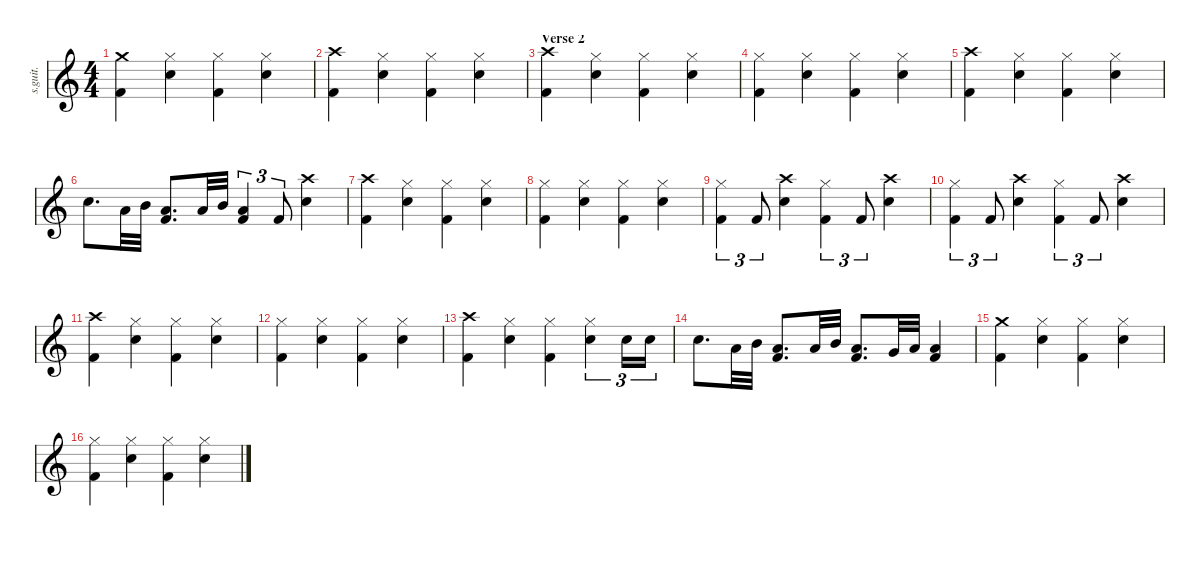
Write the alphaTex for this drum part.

\defaultSystemsLayout 4
\hideDynamics
\bracketExtendMode nobrackets
\track ("Lars Ulrich (Drums)" "s.guit.") {instrument percussion}
\staff {score}
\articulation defaults
\ts (4 4)
\tempo (118 hide)
\clef g2
\ks c
("Crash medium (hit)" "Kick (hit) 2").4{lyrics (0 "") lyrics (1 "") lyrics (2 "") lyrics (3 "") lyrics (4 "") dy f} ("Hi-Hat (closed)" "Snare (hit) 2").4{lyrics (0 "") lyrics (1 "") lyrics (2 "") lyrics (3 "") lyrics (4 "")} ("Hi-Hat (closed)" "Kick (hit) 2").4{lyrics (0 "") lyrics (1 "") lyrics (2 "") lyrics (3 "") lyrics (4 "")} ("Hi-Hat (closed)" "Snare (hit) 2").4{lyrics (0 "") lyrics (1 "") lyrics (2 "") lyrics (3 "") lyrics (4 "")} |
("Crash high (hit)" "Kick (hit) 2").4{lyrics (0 "") lyrics (1 "") lyrics (2 "") lyrics (3 "") lyrics (4 "")} ("Hi-Hat (closed)" "Snare (hit) 2").4{lyrics (0 "") lyrics (1 "") lyrics (2 "") lyrics (3 "") lyrics (4 "")} ("Hi-Hat (closed)" "Kick (hit) 2").4{lyrics (0 "") lyrics (1 "") lyrics (2 "") lyrics (3 "") lyrics (4 "")} ("Hi-Hat (closed)" "Snare (hit) 2").4{lyrics (0 "") lyrics (1 "") lyrics (2 "") lyrics (3 "") lyrics (4 "")} |
\section ("" "Verse 2")
("Crash high (hit)" "Kick (hit) 2").4{lyrics (0 "") lyrics (1 "") lyrics (2 "") lyrics (3 "") lyrics (4 "")} ("Hi-Hat (closed)" "Snare (hit) 2").4{lyrics (0 "") lyrics (1 "") lyrics (2 "") lyrics (3 "") lyrics (4 "")} ("Hi-Hat (closed)" "Kick (hit) 2").4{lyrics (0 "") lyrics (1 "") lyrics (2 "") lyrics (3 "") lyrics (4 "")} ("Hi-Hat (closed)" "Snare (hit) 2").4{lyrics (0 "") lyrics (1 "") lyrics (2 "") lyrics (3 "") lyrics (4 "")} |
("Hi-Hat (closed)" "Kick (hit) 2").4{lyrics (0 "") lyrics (1 "") lyrics (2 "") lyrics (3 "") lyrics (4 "")} ("Hi-Hat (closed)" "Snare (hit) 2").4{lyrics (0 "") lyrics (1 "") lyrics (2 "") lyrics (3 "") lyrics (4 "")} ("Hi-Hat (closed)" "Kick (hit) 2").4{lyrics (0 "") lyrics (1 "") lyrics (2 "") lyrics (3 "") lyrics (4 "")} ("Hi-Hat (closed)" "Snare (hit) 2").4{lyrics (0 "") lyrics (1 "") lyrics (2 "") lyrics (3 "") lyrics (4 "")} |
("Crash high (hit)" "Kick (hit) 2").4{lyrics (0 "") lyrics (1 "") lyrics (2 "") lyrics (3 "") lyrics (4 "")} ("Hi-Hat (closed)" "Snare (hit) 2").4{lyrics (0 "") lyrics (1 "") lyrics (2 "") lyrics (3 "") lyrics (4 "")} ("Hi-Hat (closed)" "Kick (hit) 2").4{lyrics (0 "") lyrics (1 "") lyrics (2 "") lyrics (3 "") lyrics (4 "")} ("Hi-Hat (closed)" "Snare (hit) 2").4{lyrics (0 "") lyrics (1 "") lyrics (2 "") lyrics (3 "") lyrics (4 "")} |
"Snare (hit) 2".8{d lyrics (0 "") lyrics (1 "") lyrics (2 "") lyrics (3 "") lyrics (4 "")} "Low Tom (hit)".32{lyrics (0 "") lyrics (1 "") lyrics (2 "") lyrics (3 "") lyrics (4 "")} "Mid Tom (hit)".32{lyrics (0 "") lyrics (1 "") lyrics (2 "") lyrics (3 "") lyrics (4 "")} ("Low Tom (hit)" "Kick (hit) 2").8{d lyrics (0 "") lyrics (1 "") lyrics (2 "") lyrics (3 "") lyrics (4 "")} "Low Tom (hit)".32{lyrics (0 "") lyrics (1 "") lyrics (2 "") lyrics (3 "") lyrics (4 "")} "Mid Tom (hit)".32{lyrics (0 "") lyrics (1 "") lyrics (2 "") lyrics (3 "") lyrics (4 "")} ("Low Tom (hit)" "Kick (hit) 2").4{tu (3 2) lyrics (0 "") lyrics (1 "") lyrics (2 "") lyrics (3 "") lyrics (4 "")} "Kick (hit) 2".8{tu (3 2) lyrics (0 "") lyrics (1 "") lyrics (2 "") lyrics (3 "") lyrics (4 "")} ("Crash high (hit)" "Snare (hit) 2").4{lyrics (0 "") lyrics (1 "") lyrics (2 "") lyrics (3 "") lyrics (4 "")} |
("Crash high (hit)" "Kick (hit) 2").4{lyrics (0 "") lyrics (1 "") lyrics (2 "") lyrics (3 "") lyrics (4 "")} ("Hi-Hat (closed)" "Snare (hit) 2").4{lyrics (0 "") lyrics (1 "") lyrics (2 "") lyrics (3 "") lyrics (4 "")} ("Hi-Hat (closed)" "Kick (hit) 2").4{lyrics (0 "") lyrics (1 "") lyrics (2 "") lyrics (3 "") lyrics (4 "")} ("Hi-Hat (closed)" "Snare (hit) 2").4{lyrics (0 "") lyrics (1 "") lyrics (2 "") lyrics (3 "") lyrics (4 "")} |
("Hi-Hat (closed)" "Kick (hit) 2").4{lyrics (0 "") lyrics (1 "") lyrics (2 "") lyrics (3 "") lyrics (4 "")} ("Hi-Hat (closed)" "Snare (hit) 2").4{lyrics (0 "") lyrics (1 "") lyrics (2 "") lyrics (3 "") lyrics (4 "")} ("Hi-Hat (closed)" "Kick (hit) 2").4{lyrics (0 "") lyrics (1 "") lyrics (2 "") lyrics (3 "") lyrics (4 "")} ("Hi-Hat (closed)" "Snare (hit) 2").4{lyrics (0 "") lyrics (1 "") lyrics (2 "") lyrics (3 "") lyrics (4 "")} |
("Hi-Hat (closed)" "Kick (hit) 2").4{tu (3 2) lyrics (0 "") lyrics (1 "") lyrics (2 "") lyrics (3 "") lyrics (4 "")} "Kick (hit) 2".8{tu (3 2) lyrics (0 "") lyrics (1 "") lyrics (2 "") lyrics (3 "") lyrics (4 "")} ("Crash high (hit)" "Snare (hit) 2").4{lyrics (0 "") lyrics (1 "") lyrics (2 "") lyrics (3 "") lyrics (4 "")} ("Hi-Hat (closed)" "Kick (hit) 2").4{tu (3 2) lyrics (0 "") lyrics (1 "") lyrics (2 "") lyrics (3 "") lyrics (4 "")} "Kick (hit) 2".8{tu (3 2) lyrics (0 "") lyrics (1 "") lyrics (2 "") lyrics (3 "") lyrics (4 "")} ("Crash high (hit)" "Snare (hit) 2").4{lyrics (0 "") lyrics (1 "") lyrics (2 "") lyrics (3 "") lyrics (4 "")} |
("Hi-Hat (closed)" "Kick (hit) 2").4{tu (3 2) lyrics (0 "") lyrics (1 "") lyrics (2 "") lyrics (3 "") lyrics (4 "")} "Kick (hit) 2".8{tu (3 2) lyrics (0 "") lyrics (1 "") lyrics (2 "") lyrics (3 "") lyrics (4 "")} ("Crash high (hit)" "Snare (hit) 2").4{lyrics (0 "") lyrics (1 "") lyrics (2 "") lyrics (3 "") lyrics (4 "")} ("Hi-Hat (closed)" "Kick (hit) 2").4{tu (3 2) lyrics (0 "") lyrics (1 "") lyrics (2 "") lyrics (3 "") lyrics (4 "")} "Kick (hit) 2".8{tu (3 2) lyrics (0 "") lyrics (1 "") lyrics (2 "") lyrics (3 "") lyrics (4 "")} ("Crash high (hit)" "Snare (hit) 2").4{lyrics (0 "") lyrics (1 "") lyrics (2 "") lyrics (3 "") lyrics (4 "")} |
("Crash high (hit)" "Kick (hit) 2").4{lyrics (0 "") lyrics (1 "") lyrics (2 "") lyrics (3 "") lyrics (4 "")} ("Hi-Hat (closed)" "Snare (hit) 2").4{lyrics (0 "") lyrics (1 "") lyrics (2 "") lyrics (3 "") lyrics (4 "")} ("Hi-Hat (closed)" "Kick (hit) 2").4{lyrics (0 "") lyrics (1 "") lyrics (2 "") lyrics (3 "") lyrics (4 "")} ("Hi-Hat (closed)" "Snare (hit) 2").4{lyrics (0 "") lyrics (1 "") lyrics (2 "") lyrics (3 "") lyrics (4 "")} |
("Hi-Hat (closed)" "Kick (hit) 2").4{lyrics (0 "") lyrics (1 "") lyrics (2 "") lyrics (3 "") lyrics (4 "")} ("Hi-Hat (closed)" "Snare (hit) 2").4{lyrics (0 "") lyrics (1 "") lyrics (2 "") lyrics (3 "") lyrics (4 "")} ("Hi-Hat (closed)" "Kick (hit) 2").4{lyrics (0 "") lyrics (1 "") lyrics (2 "") lyrics (3 "") lyrics (4 "")} ("Hi-Hat (closed)" "Snare (hit) 2").4{lyrics (0 "") lyrics (1 "") lyrics (2 "") lyrics (3 "") lyrics (4 "")} |
("Crash high (hit)" "Kick (hit) 2").4{lyrics (0 "") lyrics (1 "") lyrics (2 "") lyrics (3 "") lyrics (4 "")} ("Hi-Hat (closed)" "Snare (hit) 2").4{lyrics (0 "") lyrics (1 "") lyrics (2 "") lyrics (3 "") lyrics (4 "")} ("Hi-Hat (closed)" "Kick (hit) 2").4{lyrics (0 "") lyrics (1 "") lyrics (2 "") lyrics (3 "") lyrics (4 "")} ("Hi-Hat (closed)" "Snare (hit) 2").4{tu (3 2) lyrics (0 "") lyrics (1 "") lyrics (2 "") lyrics (3 "") lyrics (4 "")} "Snare (hit) 2".16{tu (3 2) lyrics (0 "") lyrics (1 "") lyrics (2 "") lyrics (3 "") lyrics (4 "")} "Snare (hit) 2".16{tu (3 2) lyrics (0 "") lyrics (1 "") lyrics (2 "") lyrics (3 "") lyrics (4 "")} |
"Snare (hit) 2".8{d lyrics (0 "") lyrics (1 "") lyrics (2 "") lyrics (3 "") lyrics (4 "")} "Low Tom (hit)".32{lyrics (0 "") lyrics (1 "") lyrics (2 "") lyrics (3 "") lyrics (4 "")} "Mid Tom (hit)".32{lyrics (0 "") lyrics (1 "") lyrics (2 "") lyrics (3 "") lyrics (4 "")} ("Low Tom (hit)" "Kick (hit) 2").8{d lyrics (0 "") lyrics (1 "") lyrics (2 "") lyrics (3 "") lyrics (4 "")} "Low Tom (hit)".32{lyrics (0 "") lyrics (1 "") lyrics (2 "") lyrics (3 "") lyrics (4 "")} "Mid Tom (hit)".32{lyrics (0 "") lyrics (1 "") lyrics (2 "") lyrics (3 "") lyrics (4 "")} ("Low Tom (hit)" "Kick (hit) 2").8{d lyrics (0 "") lyrics (1 "") lyrics (2 "") lyrics (3 "") lyrics (4 "")} "Very Low Tom (hit)".32{lyrics (0 "") lyrics (1 "") lyrics (2 "") lyrics (3 "") lyrics (4 "")} "Low Tom (hit)".32{lyrics (0 "") lyrics (1 "") lyrics (2 "") lyrics (3 "") lyrics (4 "")} ("Kick (hit) 2" "Low Tom (hit)").4{lyrics (0 "") lyrics (1 "") lyrics (2 "") lyrics (3 "") lyrics (4 "")} |
("Crash medium (hit)" "Kick (hit) 2").4{lyrics (0 "") lyrics (1 "") lyrics (2 "") lyrics (3 "") lyrics (4 "")} ("Hi-Hat (closed)" "Snare (hit) 2").4{lyrics (0 "") lyrics (1 "") lyrics (2 "") lyrics (3 "") lyrics (4 "")} ("Hi-Hat (closed)" "Kick (hit) 2").4{lyrics (0 "") lyrics (1 "") lyrics (2 "") lyrics (3 "") lyrics (4 "")} ("Hi-Hat (closed)" "Snare (hit) 2").4{lyrics (0 "") lyrics (1 "") lyrics (2 "") lyrics (3 "") lyrics (4 "")} |
("Hi-Hat (closed)" "Kick (hit) 2").4{lyrics (0 "") lyrics (1 "") lyrics (2 "") lyrics (3 "") lyrics (4 "")} ("Hi-Hat (closed)" "Snare (hit) 2").4{lyrics (0 "") lyrics (1 "") lyrics (2 "") lyrics (3 "") lyrics (4 "")} ("Hi-Hat (closed)" "Kick (hit) 2").4{lyrics (0 "") lyrics (1 "") lyrics (2 "") lyrics (3 "") lyrics (4 "")} ("Hi-Hat (closed)" "Snare (hit) 2").4{lyrics (0 "") lyrics (1 "") lyrics (2 "") lyrics (3 "") lyrics (4 "")}
